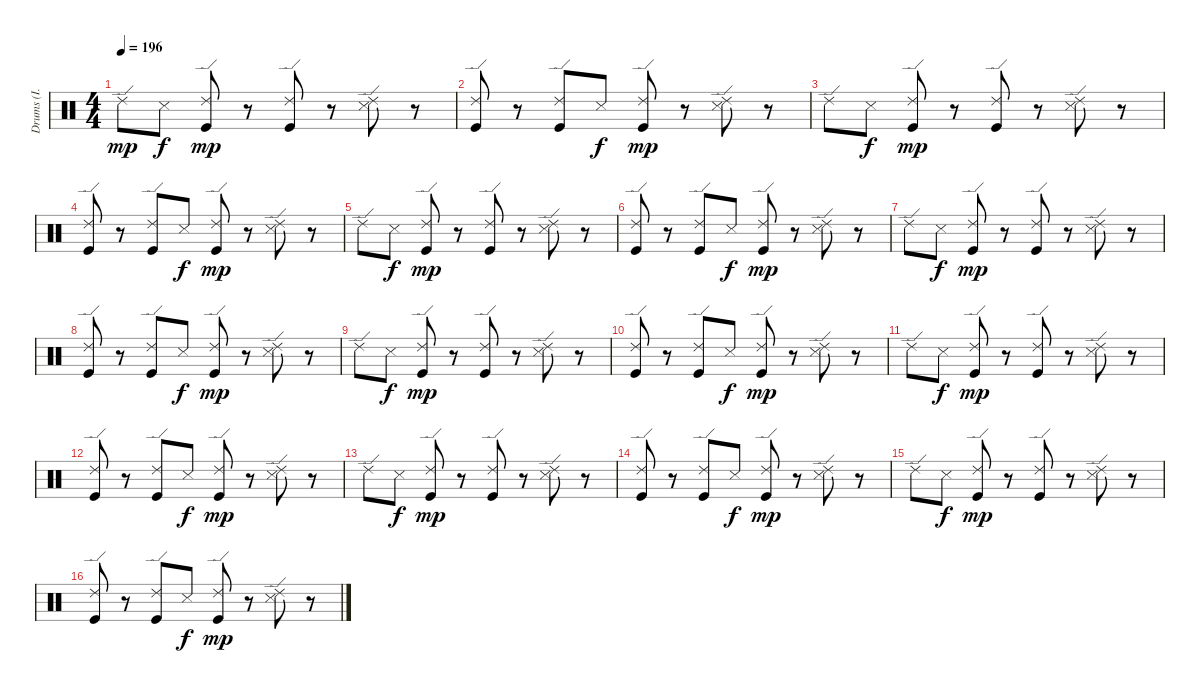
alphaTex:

\track ("Drums (I. Paice)" "Drums (I. ") {instrument percussion}
\staff {score}
\articulation defaults
\ts (4 4)
\tempo 196
\clef neutral
\ks c "Ride (edge) 2".8{dy mp} "Snare (side stick) 3".8{dy f}
("Ride (edge) 2" "Kick (hit)").8{dy mp} r.8 ("Ride (edge) 2" "Kick (hit)").8 r.8 ("Ride (edge) 2" "Snare (side stick) 3").8 r.8 |
("Ride (edge) 2" "Kick (hit)").8 r.8 ("Ride (edge) 2" "Kick (hit)").8 "Snare (side stick) 3".8{dy f} ("Ride (edge) 2" "Kick (hit)").8{dy mp} r.8 ("Ride (edge) 2" "Snare (side stick) 3").8 r.8 |
"Ride (edge) 2".8 "Snare (side stick) 3".8{dy f} ("Ride (edge) 2" "Kick (hit)").8{dy mp} r.8 ("Ride (edge) 2" "Kick (hit)").8 r.8 ("Ride (edge) 2" "Snare (side stick) 3").8 r.8 |
("Ride (edge) 2" "Kick (hit)").8 r.8 ("Ride (edge) 2" "Kick (hit)").8 "Snare (side stick) 3".8{dy f} ("Ride (edge) 2" "Kick (hit)").8{dy mp} r.8 ("Ride (edge) 2" "Snare (side stick) 3").8 r.8 |
"Ride (edge) 2".8 "Snare (side stick) 3".8{dy f} ("Ride (edge) 2" "Kick (hit)").8{dy mp} r.8 ("Ride (edge) 2" "Kick (hit)").8 r.8 ("Ride (edge) 2" "Snare (side stick) 3").8 r.8 |
("Ride (edge) 2" "Kick (hit)").8 r.8 ("Ride (edge) 2" "Kick (hit)").8 "Snare (side stick) 3".8{dy f} ("Ride (edge) 2" "Kick (hit)").8{dy mp} r.8 ("Ride (edge) 2" "Snare (side stick) 3").8 r.8 |
"Ride (edge) 2".8 "Snare (side stick) 3".8{dy f} ("Ride (edge) 2" "Kick (hit)").8{dy mp} r.8 ("Ride (edge) 2" "Kick (hit)").8 r.8 ("Ride (edge) 2" "Snare (side stick) 3").8 r.8 |
("Ride (edge) 2" "Kick (hit)").8 r.8 ("Ride (edge) 2" "Kick (hit)").8 "Snare (side stick) 3".8{dy f} ("Ride (edge) 2" "Kick (hit)").8{dy mp} r.8 ("Ride (edge) 2" "Snare (side stick) 3").8 r.8 |
"Ride (edge) 2".8 "Snare (side stick) 3".8{dy f} ("Ride (edge) 2" "Kick (hit)").8{dy mp} r.8 ("Ride (edge) 2" "Kick (hit)").8 r.8 ("Ride (edge) 2" "Snare (side stick) 3").8 r.8 |
("Ride (edge) 2" "Kick (hit)").8 r.8 ("Ride (edge) 2" "Kick (hit)").8 "Snare (side stick) 3".8{dy f} ("Ride (edge) 2" "Kick (hit)").8{dy mp} r.8 ("Ride (edge) 2" "Snare (side stick) 3").8 r.8 |
"Ride (edge) 2".8 "Snare (side stick) 3".8{dy f} ("Ride (edge) 2" "Kick (hit)").8{dy mp} r.8 ("Ride (edge) 2" "Kick (hit)").8 r.8 ("Ride (edge) 2" "Snare (side stick) 3").8 r.8 |
("Ride (edge) 2" "Kick (hit)").8 r.8 ("Ride (edge) 2" "Kick (hit)").8 "Snare (side stick) 3".8{dy f} ("Ride (edge) 2" "Kick (hit)").8{dy mp} r.8 ("Ride (edge) 2" "Snare (side stick) 3").8 r.8 |
"Ride (edge) 2".8 "Snare (side stick) 3".8{dy f} ("Ride (edge) 2" "Kick (hit)").8{dy mp} r.8 ("Ride (edge) 2" "Kick (hit)").8 r.8 ("Ride (edge) 2" "Snare (side stick) 3").8 r.8 |
("Ride (edge) 2" "Kick (hit)").8 r.8 ("Ride (edge) 2" "Kick (hit)").8 "Snare (side stick) 3".8{dy f} ("Ride (edge) 2" "Kick (hit)").8{dy mp} r.8 ("Ride (edge) 2" "Snare (side stick) 3").8 r.8 |
"Ride (edge) 2".8 "Snare (side stick) 3".8{dy f} ("Ride (edge) 2" "Kick (hit)").8{dy mp} r.8 ("Ride (edge) 2" "Kick (hit)").8 r.8 ("Ride (edge) 2" "Snare (side stick) 3").8 r.8 |
("Ride (edge) 2" "Kick (hit)").8 r.8 ("Ride (edge) 2" "Kick (hit)").8 "Snare (side stick) 3".8{dy f} ("Ride (edge) 2" "Kick (hit)").8{dy mp} r.8 ("Ride (edge) 2" "Snare (side stick) 3").8 r.8
